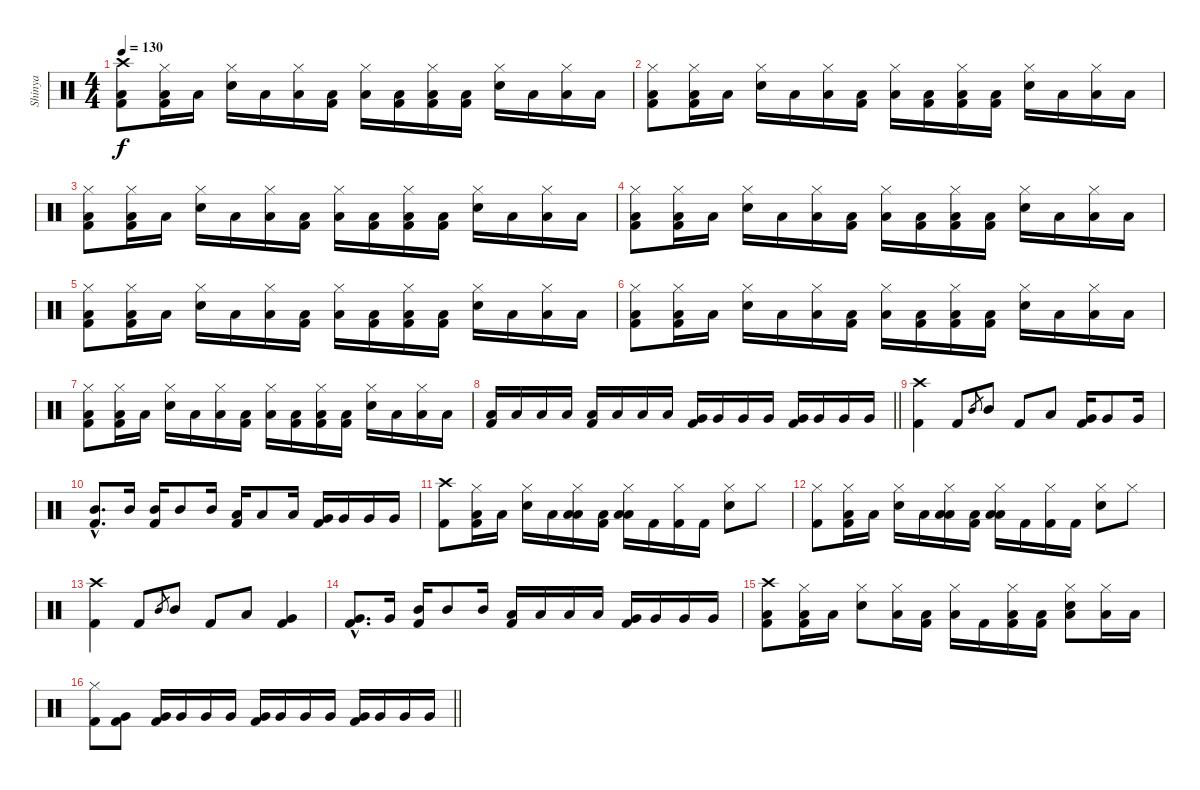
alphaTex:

\track ("Shinya" "Shinya") {instrument percussion}
\staff {score}
\articulation defaults
\ts (4 4)
\tempo 130
\clef neutral
\ks c
("Crash high (hit)" "Low Floor Tom (hit)" "Kick (hit) 2").8{dy f} ("Hi-Hat (closed)" "Low Floor Tom (hit)" "Kick (hit) 2").16 "Low Floor Tom (hit)".16 ("Hi-Hat (closed)" "Electric Snare (hit)").16 "Low Floor Tom (hit)".16 ("Hi-Hat (closed)" "Low Floor Tom (hit)").16 ("Low Tom (hit)" "Kick (hit) 2").16 ("Hi-Hat (closed)" "Low Floor Tom (hit)").16 ("Low Tom (hit)" "Kick (hit) 2").16 ("Hi-Hat (closed)" "Low Tom (hit)" "Kick (hit) 2").16 ("Low Tom (hit)" "Kick (hit) 2").16 ("Hi-Hat (closed)" "Electric Snare (hit)").16 "Low Tom (hit)".16 ("Hi-Hat (closed)" "Low Floor Tom (hit)").16 "Low Tom (hit)".16 |
("Hi-Hat (closed)" "Low Floor Tom (hit)" "Kick (hit) 2").8 ("Hi-Hat (closed)" "Low Floor Tom (hit)" "Kick (hit) 2").16 "Low Floor Tom (hit)".16 ("Hi-Hat (closed)" "Electric Snare (hit)").16 "Low Floor Tom (hit)".16 ("Hi-Hat (closed)" "Low Floor Tom (hit)").16 ("Low Tom (hit)" "Kick (hit) 2").16 ("Hi-Hat (closed)" "Low Floor Tom (hit)").16 ("Low Tom (hit)" "Kick (hit) 2").16 ("Hi-Hat (closed)" "Low Tom (hit)" "Kick (hit) 2").16 ("Low Tom (hit)" "Kick (hit) 2").16 ("Hi-Hat (closed)" "Electric Snare (hit)").16 "Low Tom (hit)".16 ("Hi-Hat (closed)" "Low Floor Tom (hit)").16 "Low Tom (hit)".16 |
("Hi-Hat (closed)" "Low Floor Tom (hit)" "Kick (hit) 2").8 ("Hi-Hat (closed)" "Low Floor Tom (hit)" "Kick (hit) 2").16 "Low Floor Tom (hit)".16 ("Hi-Hat (closed)" "Electric Snare (hit)").16 "Low Floor Tom (hit)".16 ("Hi-Hat (closed)" "Low Floor Tom (hit)").16 ("Low Tom (hit)" "Kick (hit) 2").16 ("Hi-Hat (closed)" "Low Floor Tom (hit)").16 ("Low Tom (hit)" "Kick (hit) 2").16 ("Hi-Hat (closed)" "Low Tom (hit)" "Kick (hit) 2").16 ("Low Tom (hit)" "Kick (hit) 2").16 ("Hi-Hat (closed)" "Electric Snare (hit)").16 "Low Tom (hit)".16 ("Hi-Hat (closed)" "Low Floor Tom (hit)").16 "Low Tom (hit)".16 |
("Hi-Hat (closed)" "Low Floor Tom (hit)" "Kick (hit) 2").8 ("Hi-Hat (closed)" "Low Floor Tom (hit)" "Kick (hit) 2").16 "Low Floor Tom (hit)".16 ("Hi-Hat (closed)" "Electric Snare (hit)").16 "Low Floor Tom (hit)".16 ("Hi-Hat (closed)" "Low Floor Tom (hit)").16 ("Low Tom (hit)" "Kick (hit) 2").16 ("Hi-Hat (closed)" "Low Floor Tom (hit)").16 ("Low Tom (hit)" "Kick (hit) 2").16 ("Hi-Hat (closed)" "Low Tom (hit)" "Kick (hit) 2").16 ("Low Tom (hit)" "Kick (hit) 2").16 ("Hi-Hat (closed)" "Electric Snare (hit)").16 "Low Tom (hit)".16 ("Hi-Hat (closed)" "Low Floor Tom (hit)").16 "Low Tom (hit)".16 |
("Hi-Hat (closed)" "Low Floor Tom (hit)" "Kick (hit) 2").8 ("Hi-Hat (closed)" "Low Floor Tom (hit)" "Kick (hit) 2").16 "Low Floor Tom (hit)".16 ("Hi-Hat (closed)" "Electric Snare (hit)").16 "Low Floor Tom (hit)".16 ("Hi-Hat (closed)" "Low Floor Tom (hit)").16 ("Low Tom (hit)" "Kick (hit) 2").16 ("Hi-Hat (closed)" "Low Floor Tom (hit)").16 ("Low Tom (hit)" "Kick (hit) 2").16 ("Hi-Hat (closed)" "Low Tom (hit)" "Kick (hit) 2").16 ("Low Tom (hit)" "Kick (hit) 2").16 ("Hi-Hat (closed)" "Electric Snare (hit)").16 "Low Tom (hit)".16 ("Hi-Hat (closed)" "Low Floor Tom (hit)").16 "Low Tom (hit)".16 |
("Hi-Hat (closed)" "Low Floor Tom (hit)" "Kick (hit) 2").8 ("Hi-Hat (closed)" "Low Floor Tom (hit)" "Kick (hit) 2").16 "Low Floor Tom (hit)".16 ("Hi-Hat (closed)" "Electric Snare (hit)").16 "Low Floor Tom (hit)".16 ("Hi-Hat (closed)" "Low Floor Tom (hit)").16 ("Low Tom (hit)" "Kick (hit) 2").16 ("Hi-Hat (closed)" "Low Floor Tom (hit)").16 ("Low Tom (hit)" "Kick (hit) 2").16 ("Hi-Hat (closed)" "Low Tom (hit)" "Kick (hit) 2").16 ("Low Tom (hit)" "Kick (hit) 2").16 ("Hi-Hat (closed)" "Electric Snare (hit)").16 "Low Tom (hit)".16 ("Hi-Hat (closed)" "Low Floor Tom (hit)").16 "Low Tom (hit)".16 |
("Hi-Hat (closed)" "Low Floor Tom (hit)" "Kick (hit) 2").8 ("Hi-Hat (closed)" "Low Floor Tom (hit)" "Kick (hit) 2").16 "Low Floor Tom (hit)".16 ("Hi-Hat (closed)" "Electric Snare (hit)").16 "Low Floor Tom (hit)".16 ("Hi-Hat (closed)" "Low Floor Tom (hit)").16 ("Low Tom (hit)" "Kick (hit) 2").16 ("Hi-Hat (closed)" "Low Floor Tom (hit)").16 ("Low Tom (hit)" "Kick (hit) 2").16 ("Hi-Hat (closed)" "Low Tom (hit)" "Kick (hit) 2").16 ("Low Tom (hit)" "Kick (hit) 2").16 ("Hi-Hat (closed)" "Electric Snare (hit)").16 "Low Tom (hit)".16 ("Hi-Hat (closed)" "Low Floor Tom (hit)").16 "Low Tom (hit)".16 |
\barLineRight lightlight
("Low Tom (hit)" "Kick (hit) 2").16 "Low Tom (hit)".16 "Low Tom (hit)".16 "Low Tom (hit)".16 ("Low Tom (hit)" "Kick (hit) 2").16 "Low Tom (hit)".16 "Low Tom (hit)".16 "Low Tom (hit)".16 ("Very Low Tom (hit)" "Kick (hit) 2").16 "Very Low Tom (hit)".16 "Very Low Tom (hit)".16 "Very Low Tom (hit)".16 ("Very Low Tom (hit)" "Kick (hit) 2").16 "Very Low Tom (hit)".16 "Very Low Tom (hit)".16 "Very Low Tom (hit)".16 |
("Crash high (hit)" "Kick (hit) 2").4 "Kick (hit) 2".8 "Mid Tom (hit)".8{gr} "Mid Tom (hit)".8 "Kick (hit) 2".8 "Low Tom (hit)".8 ("Very Low Tom (hit)" "Kick (hit) 2").16 "Very Low Tom (hit)".8 "Very Low Tom (hit)".16 |
("Mid Tom (hit)"{hac} "Kick (hit) 2"{hac}).8{d} "Mid Tom (hit)".16 ("Mid Tom (hit)" "Kick (hit) 2").16 "Mid Tom (hit)".8 "Mid Tom (hit)".16 ("Low Tom (hit)" "Kick (hit) 2").16 "Low Tom (hit)".8 "Low Tom (hit)".16 ("Very Low Tom (hit)" "Kick (hit) 2").16 "Very Low Tom (hit)".16 "Very Low Tom (hit)".16 "Very Low Tom (hit)".16 |
("Crash high (hit)" "Kick (hit) 2").8 ("Hi-Hat (closed)" "Low Floor Tom (hit)" "Kick (hit) 2").16 "Low Floor Tom (hit)".16 ("Hi-Hat (closed)" "Electric Snare (hit)").16 "Low Tom (hit)".16 ("Hi-Hat (closed)" "Low Tom (hit)" "Low Floor Tom (hit)").16 ("Low Tom (hit)" "Kick (hit) 2").16 ("Hi-Hat (closed)" "Low Tom (hit)" "Low Floor Tom (hit)").16 "Kick (hit) 2".16 ("Hi-Hat (closed)" "Kick (hit) 2").16 "Kick (hit) 2".16 ("Hi-Hat (closed)" "Electric Snare (hit)").8 "Hi-Hat (closed)".8 |
("Hi-Hat (closed)" "Kick (hit) 2").8 ("Hi-Hat (closed)" "Low Floor Tom (hit)" "Kick (hit) 2").16 "Low Floor Tom (hit)".16 ("Hi-Hat (closed)" "Electric Snare (hit)").16 "Low Tom (hit)".16 ("Hi-Hat (closed)" "Low Tom (hit)" "Low Floor Tom (hit)").16 ("Low Tom (hit)" "Kick (hit) 2").16 ("Hi-Hat (closed)" "Low Tom (hit)" "Low Floor Tom (hit)").16 "Kick (hit) 2".16 ("Hi-Hat (closed)" "Kick (hit) 2").16 "Kick (hit) 2".16 ("Hi-Hat (closed)" "Electric Snare (hit)").8 "Hi-Hat (closed)".8 |
("Crash high (hit)" "Kick (hit) 2").4 "Kick (hit) 2".8 "Mid Tom (hit)".8{gr} "Mid Tom (hit)".8 "Kick (hit) 2".8 "Low Tom (hit)".8 ("Very Low Tom (hit)" "Kick (hit) 2").4 |
("Very Low Tom (hit)"{hac} "Kick (hit) 2"{hac}).8{d} "Very Low Tom (hit)".16 ("Mid Tom (hit)" "Kick (hit) 2").16 "Mid Tom (hit)".8 "Mid Tom (hit)".16 ("Low Tom (hit)" "Kick (hit) 2").16 "Low Tom (hit)".16 "Low Tom (hit)".16 "Low Tom (hit)".16 ("Very Low Tom (hit)" "Kick (hit) 2").16 "Very Low Tom (hit)".16 "Very Low Tom (hit)".16 "Very Low Tom (hit)".16 |
("Crash high (hit)" "Low Floor Tom (hit)" "Kick (hit) 2").8 ("Hi-Hat (closed)" "Low Floor Tom (hit)" "Kick (hit) 2").16 "Low Floor Tom (hit)".16 ("Hi-Hat (closed)" "Electric Snare (hit)").8 ("Hi-Hat (closed)" "Low Floor Tom (hit)").16 ("Low Floor Tom (hit)" "Kick (hit) 2").16 ("Hi-Hat (closed)" "Low Floor Tom (hit)").16 "Kick (hit) 2".16 ("Hi-Hat (closed)" "Low Floor Tom (hit)" "Kick (hit) 2").16 ("Low Floor Tom (hit)" "Kick (hit) 2").16 ("Hi-Hat (closed)" "Electric Snare (hit)" "Low Floor Tom (hit)").8 ("Hi-Hat (closed)" "Low Floor Tom (hit)").16 "Low Floor Tom (hit)".16 |
\barLineRight lightlight
("Hi-Hat (closed)" "Kick (hit) 2").8 ("Very Low Tom (hit)" "Kick (hit) 2").8 ("Very Low Tom (hit)" "Kick (hit) 2").16 "Very Low Tom (hit)".16 "Very Low Tom (hit)".16 "Very Low Tom (hit)".16 ("Very Low Tom (hit)" "Kick (hit) 2").16 "Very Low Tom (hit)".16 "Very Low Tom (hit)".16 "Very Low Tom (hit)".16 ("Very Low Tom (hit)" "Kick (hit) 2").16 "Very Low Tom (hit)".16 "Very Low Tom (hit)".16 "Very Low Tom (hit)".16
